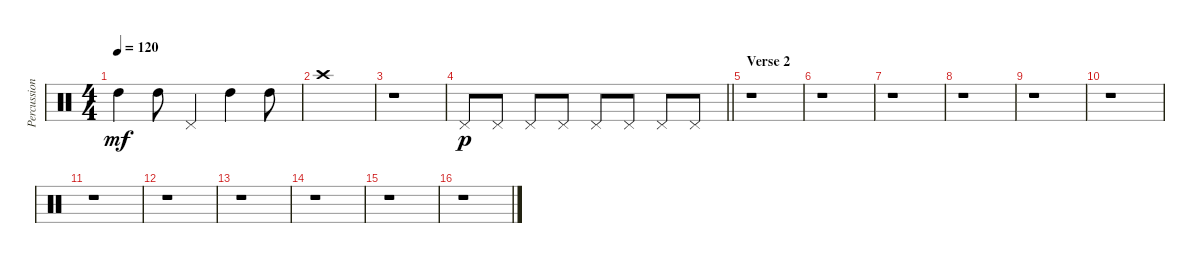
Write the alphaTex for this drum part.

\track ("Percussion" "Percussion") {instrument percussion}
\staff {score}
\articulation defaults
\ts (4 4)
\tempo 120
\clef neutral
\ks c "High Tom (hit)".4{dy mf} "High Tom (hit)".8 "Pedal Hi-Hat (hit)".4 "High Tom (hit)".4 "High Tom (hit)".8
|
"Crash high (hit)".1 |
r.1 |
\barLineRight lightlight "Pedal Hi-Hat (hit)".8{dy p} "Pedal Hi-Hat (hit)".8 "Pedal Hi-Hat (hit)".8 "Pedal Hi-Hat (hit)".8 "Pedal Hi-Hat (hit)".8 "Pedal Hi-Hat (hit)".8 "Pedal Hi-Hat (hit)".8 "Pedal Hi-Hat (hit)".8
|
\section ("" "Verse 2")
r.1 |
r.1 |
r.1 |
r.1 |
r.1 |
r.1 |
r.1 |
r.1 |
r.1 |
r.1 |
r.1 |
r.1
